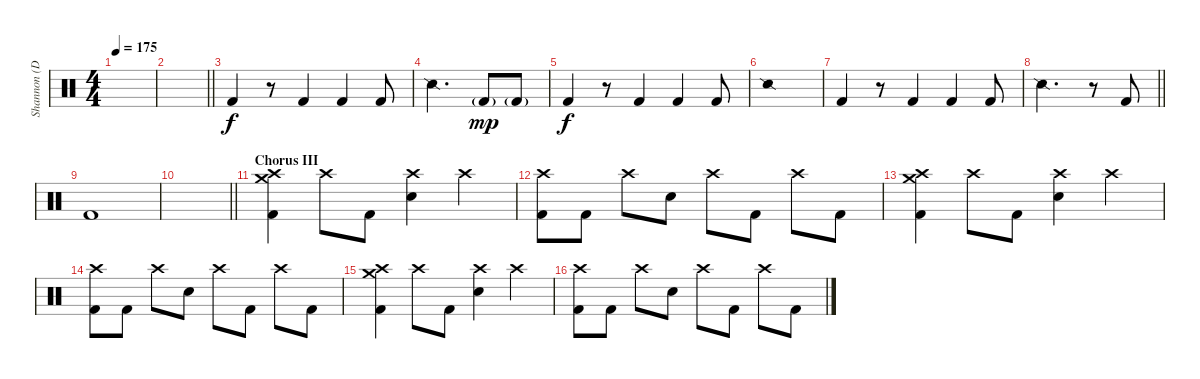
\track ("Shannon (Drum)" "Shannon (D") {instrument percussion}
\staff {score}
\articulation defaults
\ts (4 4)
\tempo 175
\clef neutral
\ks c
|
\barLineRight lightlight
|
"Kick (hit) 2".4 r.8 "Kick (hit) 2".4 "Kick (hit) 2".4 "Kick (hit) 2".8 |
"Snare (side stick) 2".2{d} "Kick (hit) 2"{g}.8{dy mp} "Kick (hit) 2"{g}.8 |
"Kick (hit) 2".4{dy f} r.8 "Kick (hit) 2".4 "Kick (hit) 2".4 "Kick (hit) 2".8 |
"Snare (side stick) 2".1 |
"Kick (hit) 2".4 r.8 "Kick (hit) 2".4 "Kick (hit) 2".4 "Kick (hit) 2".8 |
\barLineRight lightlight "Snare (side stick) 2".2{d}
r.8 "Kick (hit) 2".8 |
"Kick (hit) 2".1 |
\barLineRight lightlight
|
\section ("" "Chorus III")
("Crash high (hit)" "Crash medium (hit)" "Kick (hit) 2").4 "Crash high (hit)".8 "Kick (hit) 2".8 ("Crash high (hit)" "Electric Snare (hit)").4 "Crash high (hit)".4 |
("Crash high (hit)" "Kick (hit) 2").8 "Kick (hit) 2".8 "Crash high (hit)".8 "Electric Snare (hit)".8 "Crash high (hit)".8 "Kick (hit) 2".8 "Crash high (hit)".8 "Kick (hit) 2".8 |
("Crash high (hit)" "Crash medium (hit)" "Kick (hit) 2").4 "Crash high (hit)".8 "Kick (hit) 2".8 ("Crash high (hit)" "Electric Snare (hit)").4 "Crash high (hit)".4 |
("Crash high (hit)" "Kick (hit) 2").8 "Kick (hit) 2".8 "Crash high (hit)".8 "Electric Snare (hit)".8 "Crash high (hit)".8 "Kick (hit) 2".8 "Crash high (hit)".8 "Kick (hit) 2".8 |
("Crash high (hit)" "Crash medium (hit)" "Kick (hit) 2").4 "Crash high (hit)".8 "Kick (hit) 2".8 ("Crash high (hit)" "Electric Snare (hit)").4 "Crash high (hit)".4 |
("Crash high (hit)" "Kick (hit) 2").8 "Kick (hit) 2".8 "Crash high (hit)".8 "Electric Snare (hit)".8 "Crash high (hit)".8 "Kick (hit) 2".8 "Crash high (hit)".8 "Kick (hit) 2".8
